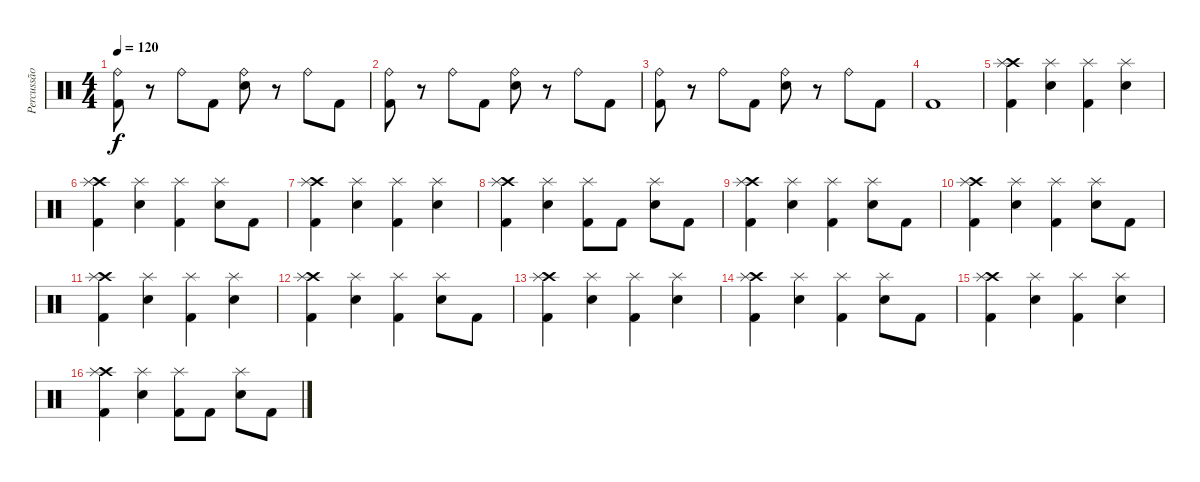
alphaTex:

\track ("Percussão" "Percussão") {instrument percussion}
\staff {score}
\articulation defaults
\ts (4 4)
\tempo 120
\clef neutral
\ks c
("Ride (bell)" "Kick (hit) 2").8{dy f} r.8 "Ride (bell)".8 "Kick (hit) 2".8 ("Ride (bell)" "Snare (hit) 2").8 r.8 "Ride (bell)".8 "Kick (hit) 2".8 |
("Ride (bell)" "Kick (hit) 2").8 r.8 "Ride (bell)".8 "Kick (hit) 2".8 ("Ride (bell)" "Snare (hit) 2").8 r.8 "Ride (bell)".8 "Kick (hit) 2".8 |
("Ride (bell)" "Kick (hit) 2").8 r.8 "Ride (bell)".8 "Kick (hit) 2".8 ("Ride (bell)" "Snare (hit) 2").8 r.8 "Ride (bell)".8 "Kick (hit) 2".8 |
"Kick (hit) 2".1 |
("Crash high (hit)" "Splash (hit)" "Kick (hit) 2").4 ("Splash (hit)" "Snare (hit) 2").4 ("Splash (hit)" "Kick (hit) 2").4 ("Splash (hit)" "Snare (hit) 2").4 |
("Crash high (hit)" "Splash (hit)" "Kick (hit) 2").4 ("Splash (hit)" "Snare (hit) 2").4 ("Splash (hit)" "Kick (hit) 2").4 ("Splash (hit)" "Snare (hit) 2").8 "Kick (hit) 2".8 |
("Crash high (hit)" "Splash (hit)" "Kick (hit) 2").4 ("Splash (hit)" "Snare (hit) 2").4 ("Splash (hit)" "Kick (hit) 2").4 ("Splash (hit)" "Snare (hit) 2").4 |
("Crash high (hit)" "Splash (hit)" "Kick (hit) 2").4 ("Splash (hit)" "Snare (hit) 2").4 ("Splash (hit)" "Kick (hit) 2").8 "Kick (hit) 2".8 ("Splash (hit)" "Snare (hit) 2").8 "Kick (hit) 2".8 |
("Crash high (hit)" "Splash (hit)" "Kick (hit) 2").4 ("Splash (hit)" "Snare (hit) 2").4 ("Splash (hit)" "Kick (hit) 2").4 ("Splash (hit)" "Snare (hit) 2").8 "Kick (hit) 2".8 |
("Crash high (hit)" "Splash (hit)" "Kick (hit) 2").4 ("Splash (hit)" "Snare (hit) 2").4 ("Splash (hit)" "Kick (hit) 2").4 ("Splash (hit)" "Snare (hit) 2").8 "Kick (hit) 2".8 |
("Crash high (hit)" "Splash (hit)" "Kick (hit) 2").4 ("Splash (hit)" "Snare (hit) 2").4 ("Splash (hit)" "Kick (hit) 2").4 ("Splash (hit)" "Snare (hit) 2").4 |
("Crash high (hit)" "Splash (hit)" "Kick (hit) 2").4 ("Splash (hit)" "Snare (hit) 2").4 ("Splash (hit)" "Kick (hit) 2").4 ("Splash (hit)" "Snare (hit) 2").8 "Kick (hit) 2".8 |
("Crash high (hit)" "Splash (hit)" "Kick (hit) 2").4 ("Splash (hit)" "Snare (hit) 2").4 ("Splash (hit)" "Kick (hit) 2").4 ("Splash (hit)" "Snare (hit) 2").4 |
("Crash high (hit)" "Splash (hit)" "Kick (hit) 2").4 ("Splash (hit)" "Snare (hit) 2").4 ("Splash (hit)" "Kick (hit) 2").4 ("Splash (hit)" "Snare (hit) 2").8 "Kick (hit) 2".8 |
("Crash high (hit)" "Splash (hit)" "Kick (hit) 2").4 ("Splash (hit)" "Snare (hit) 2").4 ("Splash (hit)" "Kick (hit) 2").4 ("Splash (hit)" "Snare (hit) 2").4 |
("Crash high (hit)" "Splash (hit)" "Kick (hit) 2").4 ("Splash (hit)" "Snare (hit) 2").4 ("Splash (hit)" "Kick (hit) 2").8 "Kick (hit) 2".8 ("Splash (hit)" "Snare (hit) 2").8 "Kick (hit) 2".8
